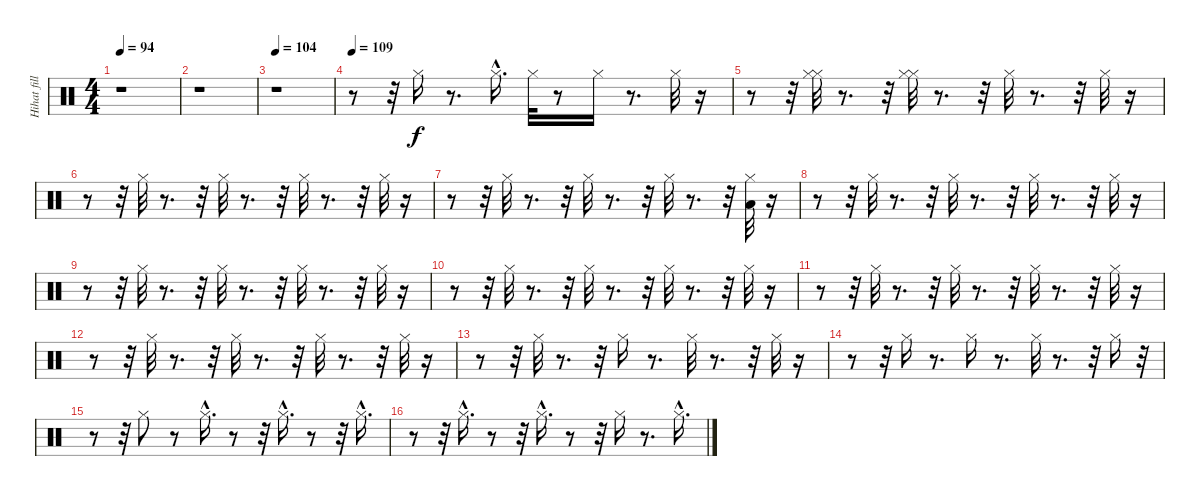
\track ("Hihat fills     " "Hihat fill") {instrument percussion}
\staff {score}
\articulation defaults
\ts (4 4)
\tempo 94
\clef neutral
\ks c
r.1{dy f} |
r.1 |
\tempo 104
r.1 |
\tempo 109
r.8 r.32 "Hi-Hat (closed)".16 r.8{d} "Hi-Hat (closed)"{hac}.16{d} "Hi-Hat (closed)".32 r.8 "Hi-Hat (closed)".16 r.8{d} "Hi-Hat (closed)".32 r.16 |
r.8 r.32 ("Hi-Hat (closed)" "Hi-Hat (closed)").32 r.8{d} r.32 ("Hi-Hat (closed)" "Hi-Hat (closed)").32 r.8{d} r.32 "Hi-Hat (closed)".32 r.8{d} r.32 "Hi-Hat (closed)".32 r.16 |
r.8 r.32 "Hi-Hat (closed)".32 r.8{d} r.32 "Hi-Hat (closed)".32 r.8{d} r.32 "Hi-Hat (closed)".32 r.8{d} r.32 "Hi-Hat (closed)".32 r.16 |
r.8 r.32 "Hi-Hat (closed)".32 r.8{d} r.32 "Hi-Hat (closed)".32 r.8{d} r.32 "Hi-Hat (closed)".32 r.8{d} r.32 ("Hi-Hat (closed)" "Low Floor Tom (hit)").32 r.16 |
r.8 r.32 "Hi-Hat (closed)".32 r.8{d} r.32 "Hi-Hat (closed)".32 r.8{d} r.32 "Hi-Hat (closed)".32 r.8{d} r.32 "Hi-Hat (closed)".32 r.16 |
r.8 r.32 "Hi-Hat (closed)".32 r.8{d} r.32 "Hi-Hat (closed)".32 r.8{d} r.32 "Hi-Hat (closed)".32 r.8{d} r.32 "Hi-Hat (closed)".32 r.16 |
r.8 r.32 "Hi-Hat (closed)".32 r.8{d} r.32 "Hi-Hat (closed)".32 r.8{d} r.32 "Hi-Hat (closed)".32 r.8{d} r.32 "Hi-Hat (closed)".32 r.16 |
r.8 r.32 "Hi-Hat (closed)".32 r.8{d} r.32 "Hi-Hat (closed)".32 r.8{d} r.32 "Hi-Hat (closed)".32 r.8{d} r.32 "Hi-Hat (closed)".32 r.16 |
r.8 r.32 "Hi-Hat (closed)".32 r.8{d} r.32 "Hi-Hat (closed)".32 r.8{d} r.32 "Hi-Hat (closed)".32 r.8{d} r.32 "Hi-Hat (closed)".32 r.16 |
r.8 r.32 "Hi-Hat (closed)".32 r.8{d} r.32 "Hi-Hat (closed)".16 r.8{d} "Hi-Hat (closed)".32 r.8{d} r.32 "Hi-Hat (closed)".32 r.16 |
r.8 r.32 "Hi-Hat (closed)".16 r.8{d} "Hi-Hat (closed)".16 r.8{d} "Hi-Hat (closed)".32 r.8{d} r.32 "Hi-Hat (closed)".16 r.32 |
r.8 r.32 "Hi-Hat (closed)".8 r.8 "Hi-Hat (closed)"{hac}.16{d} r.8 r.32 "Hi-Hat (closed)"{hac}.16{d} r.8 r.32 "Hi-Hat (closed)"{hac}.16{d} |
r.8 r.32 "Hi-Hat (closed)"{hac}.16{d} r.8 r.32 "Hi-Hat (closed)"{hac}.16{d} r.8 r.32 "Hi-Hat (closed)".16 r.8{d} "Hi-Hat (closed)"{hac}.16{d}
